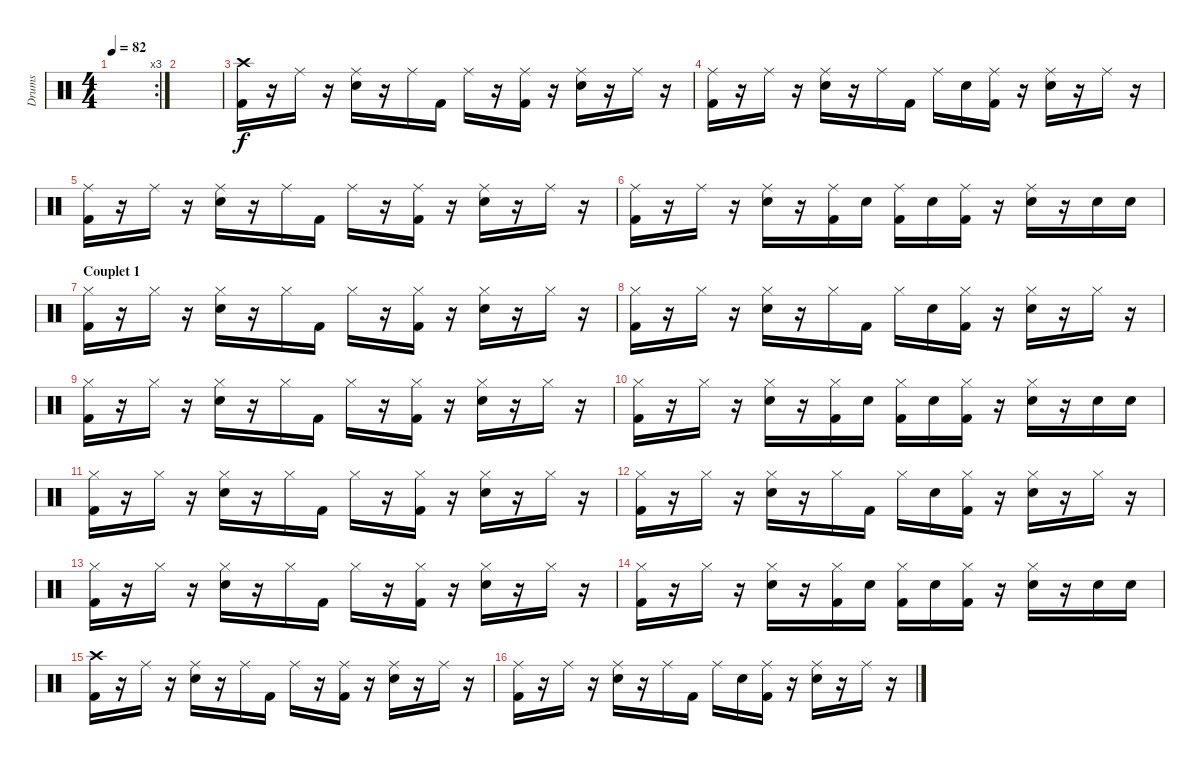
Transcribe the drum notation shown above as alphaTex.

\track ("Drums" "Drums") {instrument percussion}
\staff {score}
\articulation defaults
\rc 3
\ts (4 4)
\tempo 82
\clef neutral
\ks c
|
|
("Crash high (hit)" "Kick (hit) 2").16 r.16 "Ride (middle)".16 r.16 ("Ride (middle)" "Electric Snare (hit)").16 r.16 "Ride (middle)".16 "Kick (hit) 2".16 "Ride (middle)".16 r.16 ("Ride (middle)" "Kick (hit) 2").16 r.16 ("Ride (middle)" "Electric Snare (hit)").16 r.16 "Ride (middle)".16 r.16 |
("Ride (middle)" "Kick (hit) 2").16 r.16 "Ride (middle)".16 r.16 ("Ride (middle)" "Electric Snare (hit)").16 r.16 "Ride (middle)".16 "Kick (hit) 2".16 "Ride (middle)".16 "Electric Snare (hit)".16 ("Ride (middle)" "Kick (hit) 2").16 r.16 ("Ride (middle)" "Electric Snare (hit)").16 r.16 "Ride (middle)".16 r.16 |
("Ride (middle)" "Kick (hit) 2").16 r.16 "Ride (middle)".16 r.16 ("Ride (middle)" "Electric Snare (hit)").16 r.16 "Ride (middle)".16 "Kick (hit) 2".16 "Ride (middle)".16 r.16 ("Ride (middle)" "Kick (hit) 2").16 r.16 ("Ride (middle)" "Electric Snare (hit)").16 r.16 "Ride (middle)".16 r.16 |
("Ride (middle)" "Kick (hit) 2").16 r.16 "Ride (middle)".16 r.16 ("Ride (middle)" "Electric Snare (hit)").16 r.16 ("Ride (middle)" "Kick (hit) 2").16 "Electric Snare (hit)".16 ("Ride (middle)" "Kick (hit) 2").16 "Electric Snare (hit)".16 ("Ride (middle)" "Kick (hit) 2").16 r.16 ("Ride (middle)" "Electric Snare (hit)").16 r.16 "Electric Snare (hit)".16 "Electric Snare (hit)".16 |
\section ("" "Couplet 1")
("Hi-Hat (closed)" "Kick (hit) 2").16 r.16 "Hi-Hat (closed)".16 r.16 ("Hi-Hat (closed)" "Electric Snare (hit)").16 r.16 "Hi-Hat (closed)".16 "Kick (hit) 2".16 "Hi-Hat (closed)".16 r.16 ("Hi-Hat (closed)" "Kick (hit) 2").16 r.16 ("Hi-Hat (closed)" "Electric Snare (hit)").16 r.16 "Hi-Hat (closed)".16 r.16 |
("Hi-Hat (closed)" "Kick (hit) 2").16 r.16 "Hi-Hat (closed)".16 r.16 ("Hi-Hat (closed)" "Electric Snare (hit)").16 r.16 "Hi-Hat (closed)".16 "Kick (hit) 2".16 "Hi-Hat (closed)".16 "Electric Snare (hit)".16 ("Hi-Hat (closed)" "Kick (hit) 2").16 r.16 ("Hi-Hat (closed)" "Electric Snare (hit)").16 r.16 "Hi-Hat (closed)".16 r.16 |
("Hi-Hat (closed)" "Kick (hit) 2").16 r.16 "Hi-Hat (closed)".16 r.16 ("Hi-Hat (closed)" "Electric Snare (hit)").16 r.16 "Hi-Hat (closed)".16 "Kick (hit) 2".16 "Hi-Hat (closed)".16 r.16 ("Hi-Hat (closed)" "Kick (hit) 2").16 r.16 ("Hi-Hat (closed)" "Electric Snare (hit)").16 r.16 "Hi-Hat (closed)".16 r.16 |
("Hi-Hat (closed)" "Kick (hit) 2").16 r.16 "Hi-Hat (closed)".16 r.16 ("Hi-Hat (closed)" "Electric Snare (hit)").16 r.16 ("Hi-Hat (closed)" "Kick (hit) 2").16 "Electric Snare (hit)".16 ("Hi-Hat (closed)" "Kick (hit) 2").16 "Electric Snare (hit)".16 ("Hi-Hat (closed)" "Kick (hit) 2").16 r.16 ("Hi-Hat (closed)" "Electric Snare (hit)").16 r.16 "Electric Snare (hit)".16 "Electric Snare (hit)".16 |
("Hi-Hat (closed)" "Kick (hit) 2").16 r.16 "Hi-Hat (closed)".16 r.16 ("Hi-Hat (closed)" "Electric Snare (hit)").16 r.16 "Hi-Hat (closed)".16 "Kick (hit) 2".16 "Hi-Hat (closed)".16 r.16 ("Hi-Hat (closed)" "Kick (hit) 2").16 r.16 ("Hi-Hat (closed)" "Electric Snare (hit)").16 r.16 "Hi-Hat (closed)".16 r.16 |
("Hi-Hat (closed)" "Kick (hit) 2").16 r.16 "Hi-Hat (closed)".16 r.16 ("Hi-Hat (closed)" "Electric Snare (hit)").16 r.16 "Hi-Hat (closed)".16 "Kick (hit) 2".16 "Hi-Hat (closed)".16 "Electric Snare (hit)".16 ("Hi-Hat (closed)" "Kick (hit) 2").16 r.16 ("Hi-Hat (closed)" "Electric Snare (hit)").16 r.16 "Hi-Hat (closed)".16 r.16 |
("Hi-Hat (closed)" "Kick (hit) 2").16 r.16 "Hi-Hat (closed)".16 r.16 ("Hi-Hat (closed)" "Electric Snare (hit)").16 r.16 "Hi-Hat (closed)".16 "Kick (hit) 2".16 "Hi-Hat (closed)".16 r.16 ("Hi-Hat (closed)" "Kick (hit) 2").16 r.16 ("Hi-Hat (closed)" "Electric Snare (hit)").16 r.16 "Hi-Hat (closed)".16 r.16 |
("Hi-Hat (closed)" "Kick (hit) 2").16 r.16 "Hi-Hat (closed)".16 r.16 ("Hi-Hat (closed)" "Electric Snare (hit)").16 r.16 ("Hi-Hat (closed)" "Kick (hit) 2").16 "Electric Snare (hit)".16 ("Hi-Hat (closed)" "Kick (hit) 2").16 "Electric Snare (hit)".16 ("Hi-Hat (closed)" "Kick (hit) 2").16 r.16 ("Hi-Hat (closed)" "Electric Snare (hit)").16 r.16 "Electric Snare (hit)".16 "Electric Snare (hit)".16 |
("Crash high (hit)" "Kick (hit) 2").16 r.16 "Ride (middle)".16 r.16 ("Ride (middle)" "Electric Snare (hit)").16 r.16 "Ride (middle)".16 "Kick (hit) 2".16 "Ride (middle)".16 r.16 ("Ride (middle)" "Kick (hit) 2").16 r.16 ("Ride (middle)" "Electric Snare (hit)").16 r.16 "Ride (middle)".16 r.16 |
("Ride (middle)" "Kick (hit) 2").16 r.16 "Ride (middle)".16 r.16 ("Ride (middle)" "Electric Snare (hit)").16 r.16 "Ride (middle)".16 "Kick (hit) 2".16 "Ride (middle)".16 "Electric Snare (hit)".16 ("Ride (middle)" "Kick (hit) 2").16 r.16 ("Ride (middle)" "Electric Snare (hit)").16 r.16 "Ride (middle)".16 r.16
